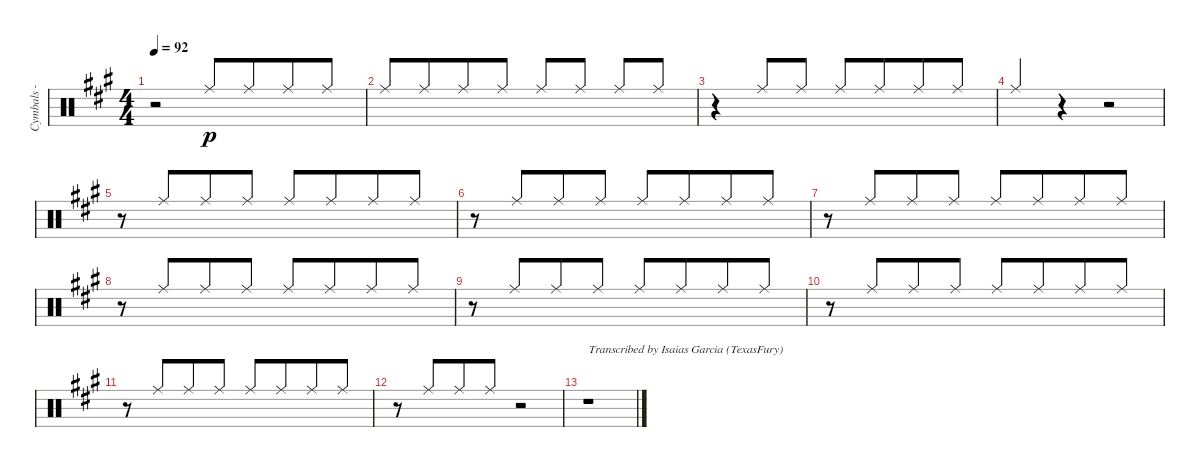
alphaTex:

\track ("Cymbals - ride" "Cymbals - ") {instrument percussion}
\staff {score}
\articulation defaults
\ts (4 4)
\tempo 92
\clef neutral
\ks f#minor
r.2{dy p} "Ride (middle)".8{beam Up} "Ride (middle)".8{beam Up beam merge} "Ride (middle)".8{beam Up} "Ride (middle)".8{beam Up} |
"Ride (middle)".8{beam Up} "Ride (middle)".8{beam Up beam merge} "Ride (middle)".8{beam Up} "Ride (middle)".8{beam Up} "Ride (middle)".8{beam Up} "Ride (middle)".8{beam Up beam split} "Ride (middle)".8{beam Up} "Ride (middle)".8{beam Up} |
r.4 "Ride (middle)".8{beam Up} "Ride (middle)".8{beam Up} "Ride (middle)".8{beam Up} "Ride (middle)".8{beam Up beam merge} "Ride (middle)".8{beam Up} "Ride (middle)".8{beam Up} |
"Ride (middle)".4{beam Up} r.4 r.2 |
r.8 "Ride (middle)".8{beam Up beam merge} "Ride (middle)".8{beam Up} "Ride (middle)".8{beam Up} "Ride (middle)".8{beam Up} "Ride (middle)".8{beam Up beam merge} "Ride (middle)".8{beam Up} "Ride (middle)".8{beam Up} |
r.8 "Ride (middle)".8{beam Up beam merge} "Ride (middle)".8{beam Up} "Ride (middle)".8{beam Up} "Ride (middle)".8{beam Up} "Ride (middle)".8{beam Up beam merge} "Ride (middle)".8{beam Up} "Ride (middle)".8{beam Up} |
r.8{beam Up} "Ride (middle)".8{beam Up beam merge} "Ride (middle)".8{beam Up} "Ride (middle)".8{beam Up} "Ride (middle)".8{beam Up} "Ride (middle)".8{beam Up beam merge} "Ride (middle)".8{beam Up} "Ride (middle)".8{beam Up} |
r.8 "Ride (middle)".8{beam Up beam merge} "Ride (middle)".8{beam Up} "Ride (middle)".8{beam Up} "Ride (middle)".8{beam Up} "Ride (middle)".8{beam Up beam merge} "Ride (middle)".8{beam Up} "Ride (middle)".8{beam Up} |
r.8 "Ride (middle)".8{beam Up beam merge} "Ride (middle)".8{beam Up} "Ride (middle)".8{beam Up} "Ride (middle)".8{beam Up} "Ride (middle)".8{beam Up beam merge} "Ride (middle)".8{beam Up} "Ride (middle)".8{beam Up} |
r.8 "Ride (middle)".8{beam Up beam merge} "Ride (middle)".8{beam Up} "Ride (middle)".8{beam Up} "Ride (middle)".8{beam Up} "Ride (middle)".8{beam Up beam merge} "Ride (middle)".8{beam Up} "Ride (middle)".8{beam Up} |
r.8 "Ride (middle)".8{beam Up beam merge} "Ride (middle)".8{beam Up} "Ride (middle)".8{beam Up} "Ride (middle)".8{beam Up} "Ride (middle)".8{beam Up beam merge} "Ride (middle)".8{beam Up} "Ride (middle)".8{beam Up} |
r.8 "Ride (middle)".8{beam Up beam merge} "Ride (middle)".8{beam Up} "Ride (middle)".8{beam Up} r.2 |
r.1{txt "Transcribed by Isaias Garcia (TexasFury)"}
